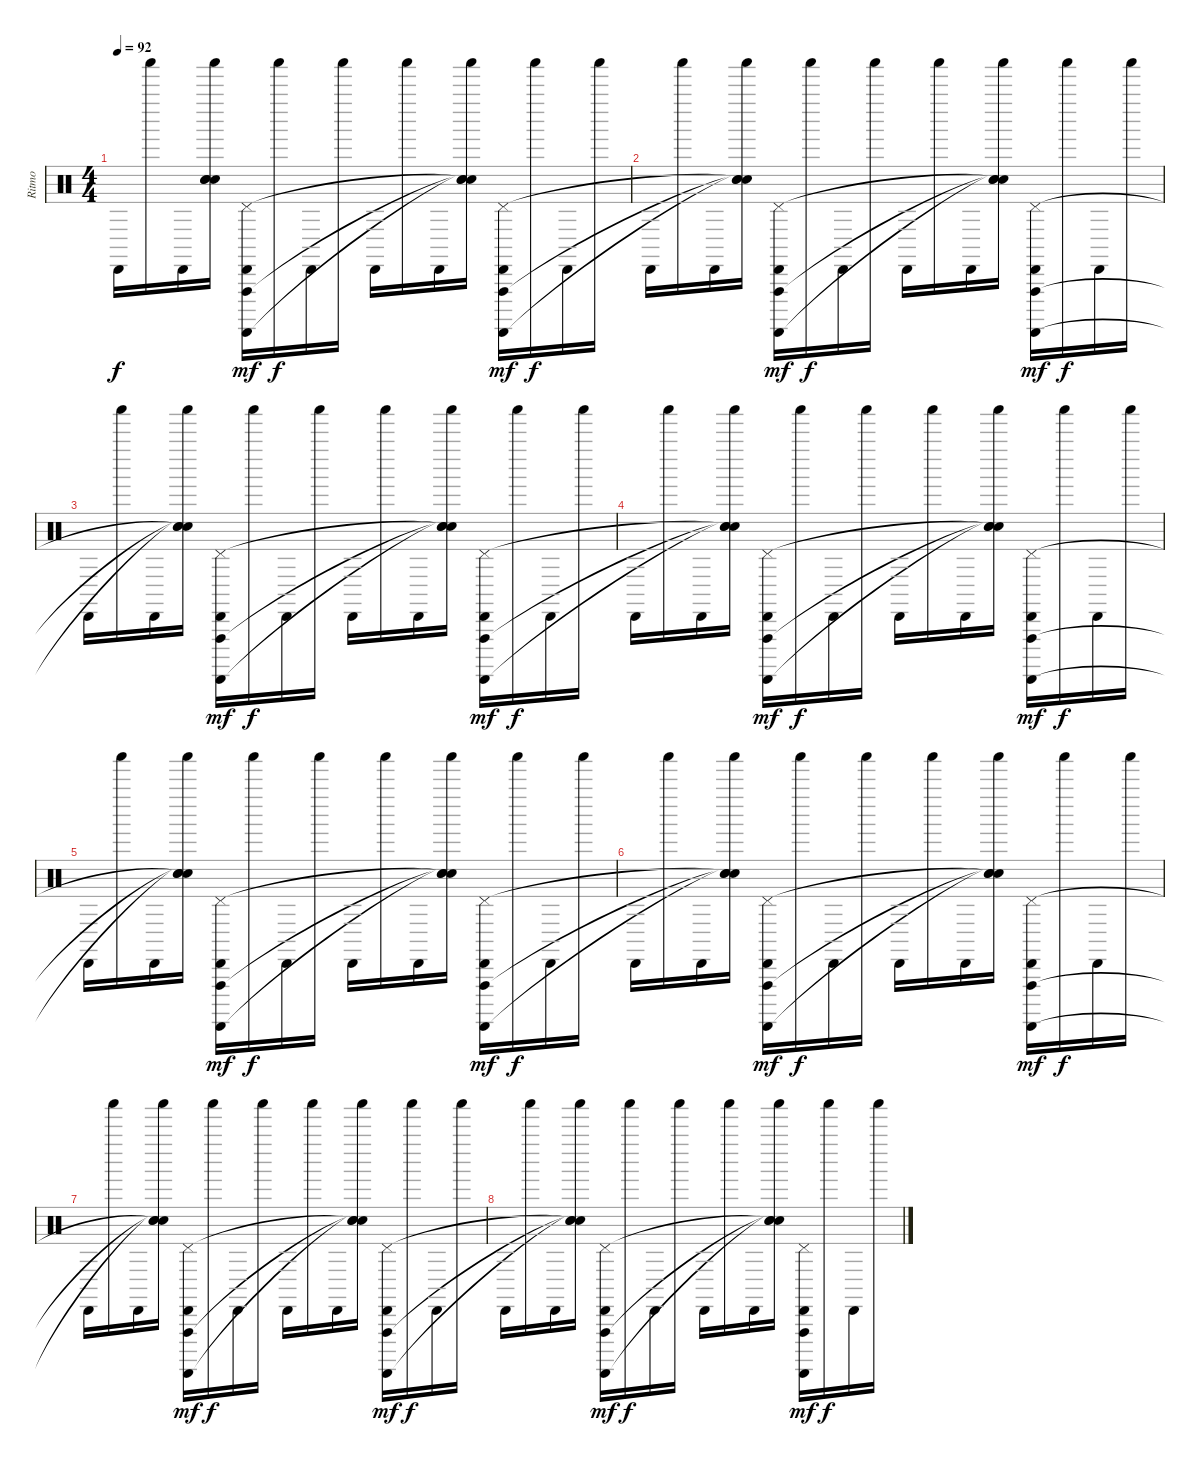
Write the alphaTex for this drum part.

\track ("Ritmo" "Ritmo") {instrument percussion}
\staff {score}
\articulation defaults
\ts (4 4)
\tempo 92
\clef neutral
\ks c "Cabasa (hit)".16{dy f} "Shaker (hit)".16 "Cabasa (hit)".16
("Shaker (hit)" "Snare (hit)"{t} "Snare (hit)"{t} "Snare (hit)"{t}).16 ("Cabasa (hit)" "Vibraslap (hit)" "Guiro (scrap-return)" "Pedal Hi-Hat (hit)").16{dy mf} "Shaker (hit)".16{dy f} "Cabasa (hit)".16 "Shaker (hit)".16 "Cabasa (hit)".16 "Shaker (hit)".16 "Cabasa (hit)".16 ("Shaker (hit)" "Snare (hit)"{t} "Snare (hit)"{t} "Snare (hit)"{t}).16 ("Cabasa (hit)" "Vibraslap (hit)" "Guiro (scrap-return)" "Pedal Hi-Hat (hit)").16{dy mf} "Shaker (hit)".16{dy f} "Cabasa (hit)".16 "Shaker (hit)".16 |
"Cabasa (hit)".16 "Shaker (hit)".16 "Cabasa (hit)".16 ("Shaker (hit)" "Snare (hit)"{t} "Snare (hit)"{t} "Snare (hit)"{t}).16 ("Cabasa (hit)" "Vibraslap (hit)" "Guiro (scrap-return)" "Pedal Hi-Hat (hit)").16{dy mf} "Shaker (hit)".16{dy f} "Cabasa (hit)".16 "Shaker (hit)".16 "Cabasa (hit)".16 "Shaker (hit)".16 "Cabasa (hit)".16 ("Shaker (hit)" "Snare (hit)"{t} "Snare (hit)"{t} "Snare (hit)"{t}).16 ("Cabasa (hit)" "Vibraslap (hit)" "Guiro (scrap-return)" "Pedal Hi-Hat (hit)").16{dy mf} "Shaker (hit)".16{dy f} "Cabasa (hit)".16 "Shaker (hit)".16 |
"Cabasa (hit)".16 "Shaker (hit)".16 "Cabasa (hit)".16 ("Shaker (hit)" "Snare (hit)"{t} "Snare (hit)"{t} "Snare (hit)"{t}).16 ("Cabasa (hit)" "Vibraslap (hit)" "Guiro (scrap-return)" "Pedal Hi-Hat (hit)").16{dy mf} "Shaker (hit)".16{dy f} "Cabasa (hit)".16 "Shaker (hit)".16 "Cabasa (hit)".16 "Shaker (hit)".16 "Cabasa (hit)".16 ("Shaker (hit)" "Snare (hit)"{t} "Snare (hit)"{t} "Snare (hit)"{t}).16 ("Cabasa (hit)" "Vibraslap (hit)" "Guiro (scrap-return)" "Pedal Hi-Hat (hit)").16{dy mf} "Shaker (hit)".16{dy f} "Cabasa (hit)".16 "Shaker (hit)".16 |
"Cabasa (hit)".16 "Shaker (hit)".16 "Cabasa (hit)".16 ("Shaker (hit)" "Snare (hit)"{t} "Snare (hit)"{t} "Snare (hit)"{t}).16 ("Cabasa (hit)" "Vibraslap (hit)" "Guiro (scrap-return)" "Pedal Hi-Hat (hit)").16{dy mf} "Shaker (hit)".16{dy f} "Cabasa (hit)".16 "Shaker (hit)".16 "Cabasa (hit)".16 "Shaker (hit)".16 "Cabasa (hit)".16 ("Shaker (hit)" "Snare (hit)"{t} "Snare (hit)"{t} "Snare (hit)"{t}).16 ("Cabasa (hit)" "Vibraslap (hit)" "Guiro (scrap-return)" "Pedal Hi-Hat (hit)").16{dy mf} "Shaker (hit)".16{dy f} "Cabasa (hit)".16 "Shaker (hit)".16 |
"Cabasa (hit)".16 "Shaker (hit)".16 "Cabasa (hit)".16 ("Shaker (hit)" "Snare (hit)"{t} "Snare (hit)"{t} "Snare (hit)"{t}).16 ("Cabasa (hit)" "Vibraslap (hit)" "Guiro (scrap-return)" "Pedal Hi-Hat (hit)").16{dy mf} "Shaker (hit)".16{dy f} "Cabasa (hit)".16 "Shaker (hit)".16 "Cabasa (hit)".16 "Shaker (hit)".16 "Cabasa (hit)".16 ("Shaker (hit)" "Snare (hit)"{t} "Snare (hit)"{t} "Snare (hit)"{t}).16 ("Cabasa (hit)" "Vibraslap (hit)" "Guiro (scrap-return)" "Pedal Hi-Hat (hit)").16{dy mf} "Shaker (hit)".16{dy f} "Cabasa (hit)".16 "Shaker (hit)".16 |
"Cabasa (hit)".16 "Shaker (hit)".16 "Cabasa (hit)".16 ("Shaker (hit)" "Snare (hit)"{t} "Snare (hit)"{t} "Snare (hit)"{t}).16 ("Cabasa (hit)" "Vibraslap (hit)" "Guiro (scrap-return)" "Pedal Hi-Hat (hit)").16{dy mf} "Shaker (hit)".16{dy f} "Cabasa (hit)".16 "Shaker (hit)".16 "Cabasa (hit)".16 "Shaker (hit)".16 "Cabasa (hit)".16 ("Shaker (hit)" "Snare (hit)"{t} "Snare (hit)"{t} "Snare (hit)"{t}).16 ("Cabasa (hit)" "Vibraslap (hit)" "Guiro (scrap-return)" "Pedal Hi-Hat (hit)").16{dy mf} "Shaker (hit)".16{dy f} "Cabasa (hit)".16 "Shaker (hit)".16 |
"Cabasa (hit)".16 "Shaker (hit)".16 "Cabasa (hit)".16 ("Shaker (hit)" "Snare (hit)"{t} "Snare (hit)"{t} "Snare (hit)"{t}).16 ("Cabasa (hit)" "Vibraslap (hit)" "Guiro (scrap-return)" "Pedal Hi-Hat (hit)").16{dy mf} "Shaker (hit)".16{dy f} "Cabasa (hit)".16 "Shaker (hit)".16 "Cabasa (hit)".16 "Shaker (hit)".16 "Cabasa (hit)".16 ("Shaker (hit)" "Snare (hit)"{t} "Snare (hit)"{t} "Snare (hit)"{t}).16 ("Cabasa (hit)" "Vibraslap (hit)" "Guiro (scrap-return)" "Pedal Hi-Hat (hit)").16{dy mf} "Shaker (hit)".16{dy f} "Cabasa (hit)".16 "Shaker (hit)".16 |
"Cabasa (hit)".16 "Shaker (hit)".16 "Cabasa (hit)".16 ("Shaker (hit)" "Snare (hit)"{t} "Snare (hit)"{t} "Snare (hit)"{t}).16 ("Cabasa (hit)" "Vibraslap (hit)" "Guiro (scrap-return)" "Pedal Hi-Hat (hit)").16{dy mf} "Shaker (hit)".16{dy f} "Cabasa (hit)".16 "Shaker (hit)".16 "Cabasa (hit)".16 "Shaker (hit)".16 "Cabasa (hit)".16 ("Shaker (hit)" "Snare (hit)"{t} "Snare (hit)"{t} "Snare (hit)"{t}).16 ("Cabasa (hit)" "Vibraslap (hit)" "Guiro (scrap-return)" "Pedal Hi-Hat (hit)").16{dy mf} "Shaker (hit)".16{dy f} "Cabasa (hit)".16 "Shaker (hit)".16
